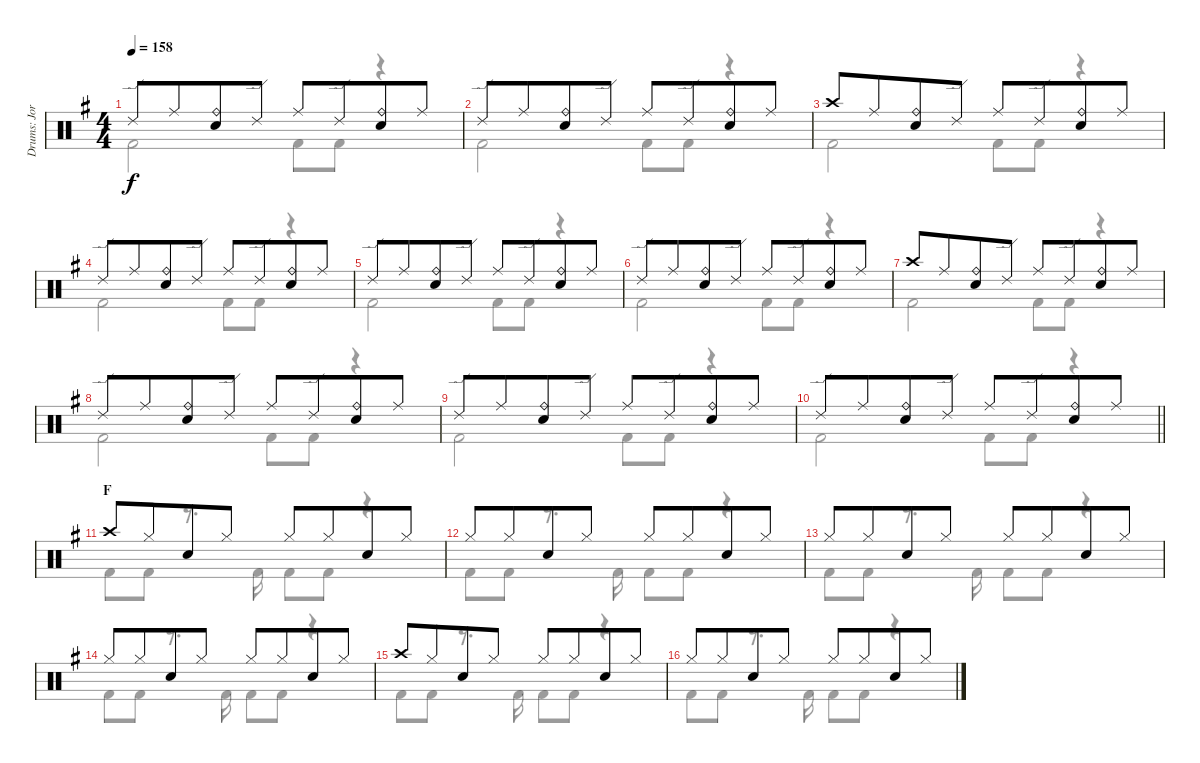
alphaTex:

\track ("Drums: Jorg" "Drums: Jor") {instrument percussion}
\staff {score}
\articulation defaults
\voice
\ts (4 4)
\tempo 158
\clef neutral
\ks g "Ride (edge) 2".8{dy f} "Ride (middle)".8{beam merge}
("Ride (bell)" "Snare (hit) 2").8 "Ride (edge) 2".8 "Ride (middle)".8 "Ride (edge) 2".8{beam merge} ("Ride (bell)" "Snare (hit) 2").8 "Ride (middle)".8 |
"Ride (edge) 2".8 "Ride (middle)".8{beam merge} ("Ride (bell)" "Snare (hit) 2").8 "Ride (edge) 2".8 "Ride (middle)".8 "Ride (edge) 2".8{beam merge} ("Ride (bell)" "Snare (hit) 2").8 "Ride (middle)".8 |
"Crash high (hit)".8 "Ride (middle)".8{beam merge} ("Ride (bell)" "Snare (hit) 2").8 "Ride (edge) 2".8 "Ride (middle)".8 "Ride (edge) 2".8{beam merge} ("Ride (bell)" "Snare (hit) 2").8 "Ride (middle)".8 |
"Ride (edge) 2".8 "Ride (middle)".8{beam merge} ("Ride (bell)" "Snare (hit) 2").8 "Ride (edge) 2".8 "Ride (middle)".8 "Ride (edge) 2".8{beam merge} ("Ride (bell)" "Snare (hit) 2").8 "Ride (middle)".8 |
"Ride (edge) 2".8 "Ride (middle)".8{beam merge} ("Ride (bell)" "Snare (hit) 2").8 "Ride (edge) 2".8 "Ride (middle)".8 "Ride (edge) 2".8{beam merge} ("Ride (bell)" "Snare (hit) 2").8 "Ride (middle)".8 |
"Ride (edge) 2".8 "Ride (middle)".8{beam merge} ("Ride (bell)" "Snare (hit) 2").8 "Ride (edge) 2".8 "Ride (middle)".8 "Ride (edge) 2".8{beam merge} ("Ride (bell)" "Snare (hit) 2").8 "Ride (middle)".8 |
"Crash high (hit)".8 "Ride (middle)".8{beam merge} ("Ride (bell)" "Snare (hit) 2").8 "Ride (edge) 2".8 "Ride (middle)".8 "Ride (edge) 2".8{beam merge} ("Ride (bell)" "Snare (hit) 2").8 "Ride (middle)".8 |
"Ride (edge) 2".8 "Ride (middle)".8{beam merge} ("Ride (bell)" "Snare (hit) 2").8 "Ride (edge) 2".8 "Ride (middle)".8 "Ride (edge) 2".8{beam merge} ("Ride (bell)" "Snare (hit) 2").8 "Ride (middle)".8 |
"Ride (edge) 2".8 "Ride (middle)".8{beam merge} ("Ride (bell)" "Snare (hit) 2").8 "Ride (edge) 2".8 "Ride (middle)".8 "Ride (edge) 2".8{beam merge} ("Ride (bell)" "Snare (hit) 2").8 "Ride (middle)".8 |
\barLineRight lightlight "Ride (edge) 2".8 "Ride (middle)".8{beam merge}
("Ride (bell)" "Snare (hit) 2").8 "Ride (edge) 2".8 "Ride (middle)".8 "Ride (edge) 2".8{beam merge} ("Ride (bell)" "Snare (hit) 2").8 "Ride (middle)".8 |
\section ("" "F")
"Crash high (hit)".8 "Hi-Hat (closed)".8{beam merge} "Snare (hit) 2".8 "Hi-Hat (closed)".8 "Hi-Hat (closed)".8 "Hi-Hat (closed)".8{beam merge} "Snare (hit) 2".8 "Hi-Hat (closed)".8 |
"Hi-Hat (closed)".8 "Hi-Hat (closed)".8{beam merge} "Snare (hit) 2".8 "Hi-Hat (closed)".8 "Hi-Hat (closed)".8 "Hi-Hat (closed)".8{beam merge} "Snare (hit) 2".8 "Hi-Hat (closed)".8 |
"Hi-Hat (closed)".8 "Hi-Hat (closed)".8{beam merge} "Snare (hit) 2".8 "Hi-Hat (closed)".8 "Hi-Hat (closed)".8 "Hi-Hat (closed)".8{beam merge} "Snare (hit) 2".8 "Hi-Hat (closed)".8 |
"Hi-Hat (closed)".8 "Hi-Hat (closed)".8{beam merge} "Snare (hit) 2".8 "Hi-Hat (closed)".8 "Hi-Hat (closed)".8 "Hi-Hat (closed)".8{beam merge} "Snare (hit) 2".8 "Hi-Hat (closed)".8 |
"Crash high (hit)".8 "Hi-Hat (closed)".8{beam merge} "Snare (hit) 2".8 "Hi-Hat (closed)".8 "Hi-Hat (closed)".8 "Hi-Hat (closed)".8{beam merge} "Snare (hit) 2".8 "Hi-Hat (closed)".8 |
"Hi-Hat (closed)".8 "Hi-Hat (closed)".8{beam merge} "Snare (hit) 2".8 "Hi-Hat (closed)".8 "Hi-Hat (closed)".8 "Hi-Hat (closed)".8{beam merge} "Snare (hit) 2".8 "Hi-Hat (closed)".8
\voice
\clef neutral
\ottava regular
\simile none
\ks g "Kick (hit) 2".2{dy f} "Kick (hit) 2".8 "Kick (hit) 2".8
r.4 |
"Kick (hit) 2".2 "Kick (hit) 2".8 "Kick (hit) 2".8 r.4 |
"Kick (hit) 2".2 "Kick (hit) 2".8 "Kick (hit) 2".8 r.4 |
"Kick (hit) 2".2 "Kick (hit) 2".8 "Kick (hit) 2".8 r.4 |
"Kick (hit) 2".2 "Kick (hit) 2".8 "Kick (hit) 2".8 r.4 |
"Kick (hit) 2".2 "Kick (hit) 2".8 "Kick (hit) 2".8 r.4 |
"Kick (hit) 2".2 "Kick (hit) 2".8 "Kick (hit) 2".8 r.4 |
"Kick (hit) 2".2 "Kick (hit) 2".8 "Kick (hit) 2".8 r.4 |
"Kick (hit) 2".2 "Kick (hit) 2".8 "Kick (hit) 2".8 r.4 |
\barLineRight lightlight "Kick (hit) 2".2 "Kick (hit) 2".8 "Kick (hit) 2".8
r.4 |
"Kick (hit) 2".8 "Kick (hit) 2".8 r.8{d} "Kick (hit) 2".16 "Kick (hit) 2".8 "Kick (hit) 2".8 r.4 |
"Kick (hit) 2".8 "Kick (hit) 2".8 r.8{d} "Kick (hit) 2".16 "Kick (hit) 2".8 "Kick (hit) 2".8 r.4 |
"Kick (hit) 2".8 "Kick (hit) 2".8 r.8{d} "Kick (hit) 2".16 "Kick (hit) 2".8 "Kick (hit) 2".8 r.4 |
"Kick (hit) 2".8 "Kick (hit) 2".8 r.8{d} "Kick (hit) 2".16 "Kick (hit) 2".8 "Kick (hit) 2".8 r.4 |
"Kick (hit) 2".8 "Kick (hit) 2".8 r.8{d} "Kick (hit) 2".16 "Kick (hit) 2".8 "Kick (hit) 2".8 r.4 |
"Kick (hit) 2".8 "Kick (hit) 2".8 r.8{d} "Kick (hit) 2".16 "Kick (hit) 2".8 "Kick (hit) 2".8 r.4
